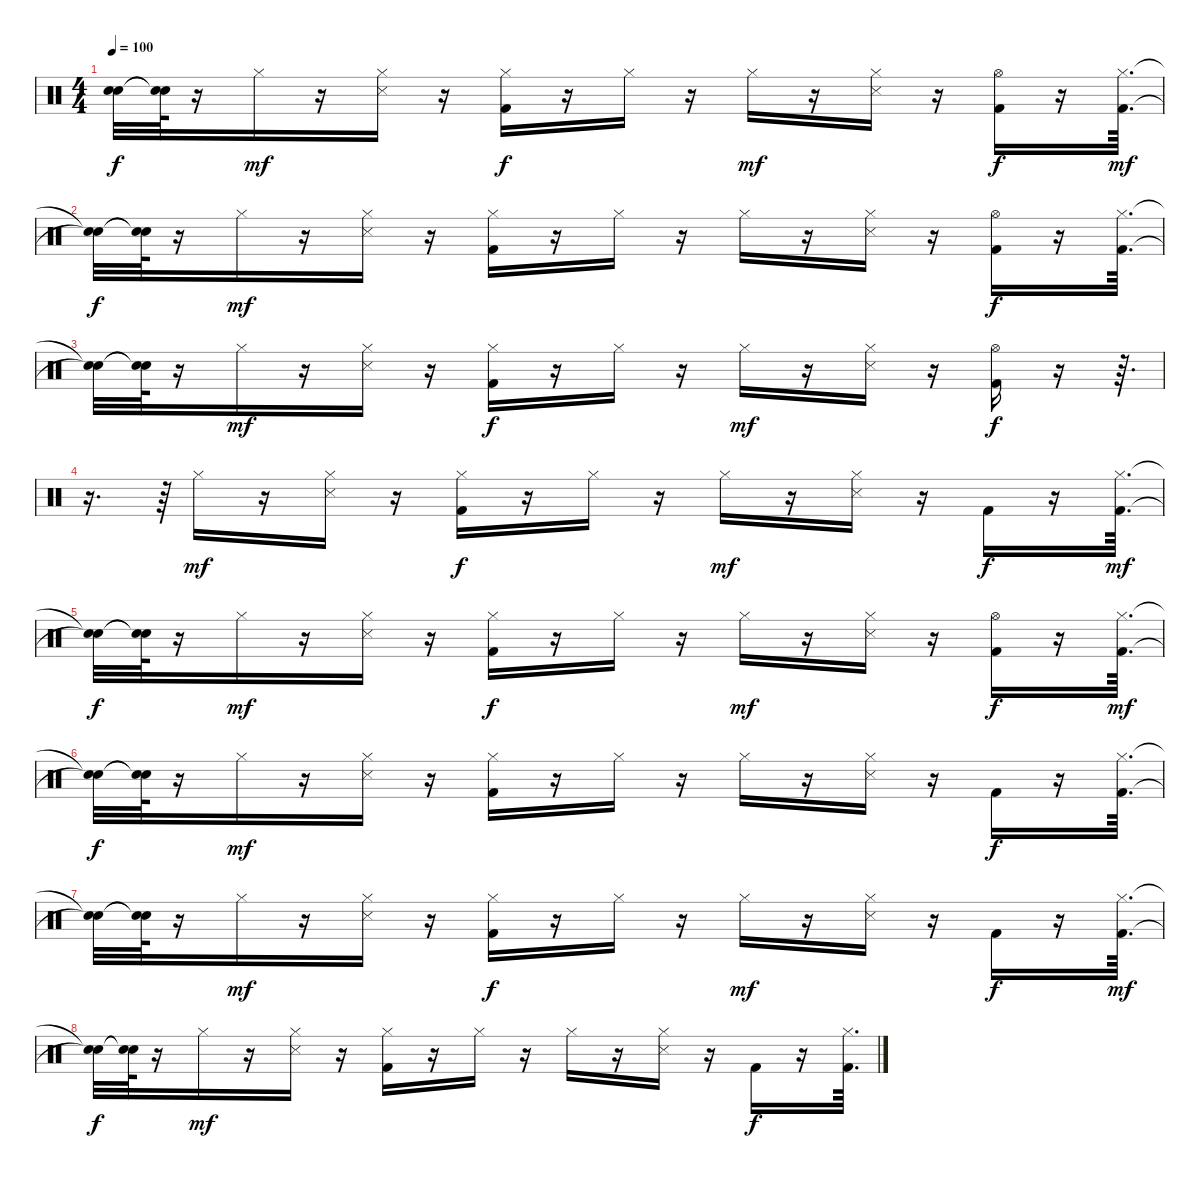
\track "" {instrument percussion}
\staff {score}
\articulation defaults
\ts (4 4)
\tempo 100
\clef neutral
\ks c
("Snare (hit)"{t} "Snare (hit)"{t}).32{dy f} ("Snare (hit)"{t} "Snare (hit)"{t}).64 r.16 "Hi-Hat (closed)".16{dy mf} r.16 ("Hi-Hat (closed)" "Snare (side stick) 3").16 r.16 ("Kick (hit) 2" "Hi-Hat (closed)").16{dy f} r.16 "Hi-Hat (closed)".16 r.16 "Hi-Hat (closed)".16{dy mf} r.16 ("Hi-Hat (closed)" "Snare (side stick) 3").16 r.16 ("Kick (hit) 2" "Hi-Hat (open)").16{dy f} r.16 ("Kick (hit) 2" "Hi-Hat (closed)").64{d dy mf} |
("Snare (hit)"{t} "Snare (hit)"{t}).32{dy f} ("Snare (hit)"{t} "Snare (hit)"{t}).64 r.16 "Hi-Hat (closed)".16{dy mf} r.16 ("Hi-Hat (closed)" "Snare (side stick) 3").16 r.16 ("Kick (hit) 2" "Hi-Hat (closed)").16 r.16 "Hi-Hat (closed)".16 r.16 "Hi-Hat (closed)".16 r.16 ("Hi-Hat (closed)" "Snare (side stick) 3").16 r.16 ("Hi-Hat (open)" "Kick (hit) 2").16{dy f} r.16 ("Hi-Hat (closed)" "Kick (hit) 2").64{d} |
("Snare (hit)"{t} "Snare (hit)"{t}).32 ("Snare (hit)"{t} "Snare (hit)"{t}).64 r.16 "Hi-Hat (closed)".16{dy mf} r.16 ("Hi-Hat (closed)" "Snare (side stick) 3").16 r.16 ("Kick (hit) 2" "Hi-Hat (closed)").16{dy f} r.16 "Hi-Hat (closed)".16 r.16 "Hi-Hat (closed)".16{dy mf} r.16 ("Hi-Hat (closed)" "Snare (side stick) 3").16 r.16 ("Kick (hit) 2" "Hi-Hat (open)").16{dy f} r.16 r.64{d} |
r.16{d} r.64 "Hi-Hat (closed)".16{dy mf} r.16 ("Hi-Hat (closed)" "Snare (side stick) 3").16 r.16 ("Kick (hit) 2" "Hi-Hat (closed)").16{dy f} r.16 "Hi-Hat (closed)".16 r.16 "Hi-Hat (closed)".16{dy mf} r.16 ("Hi-Hat (closed)" "Snare (side stick) 3").16 r.16 "Kick (hit) 2".16{dy f} r.16 ("Kick (hit) 2" "Hi-Hat (closed)").64{d dy mf} |
("Snare (hit)"{t} "Snare (hit)"{t}).32{dy f} ("Snare (hit)"{t} "Snare (hit)"{t}).64 r.16 "Hi-Hat (closed)".16{dy mf} r.16 ("Hi-Hat (closed)" "Snare (side stick) 3").16 r.16 ("Kick (hit) 2" "Hi-Hat (closed)").16{dy f} r.16 "Hi-Hat (closed)".16 r.16 "Hi-Hat (closed)".16{dy mf} r.16 ("Hi-Hat (closed)" "Snare (side stick) 3").16 r.16 ("Kick (hit) 2" "Hi-Hat (open)").16{dy f} r.16 ("Kick (hit) 2" "Hi-Hat (closed)").64{d dy mf} |
("Snare (hit)"{t} "Snare (hit)"{t}).32{dy f} ("Snare (hit)"{t} "Snare (hit)"{t}).64 r.16 "Hi-Hat (closed)".16{dy mf} r.16 ("Hi-Hat (closed)" "Snare (side stick) 3").16 r.16 ("Kick (hit) 2" "Hi-Hat (closed)").16 r.16 "Hi-Hat (closed)".16 r.16 "Hi-Hat (closed)".16 r.16 ("Hi-Hat (closed)" "Snare (side stick) 3").16 r.16 "Kick (hit) 2".16{dy f} r.16 ("Hi-Hat (closed)" "Kick (hit) 2").64{d} |
("Snare (hit)"{t} "Snare (hit)"{t}).32 ("Snare (hit)"{t} "Snare (hit)"{t}).64 r.16 "Hi-Hat (closed)".16{dy mf} r.16 ("Hi-Hat (closed)" "Snare (side stick) 3").16 r.16 ("Kick (hit) 2" "Hi-Hat (closed)").16{dy f} r.16 "Hi-Hat (closed)".16 r.16 "Hi-Hat (closed)".16{dy mf} r.16 ("Hi-Hat (closed)" "Snare (side stick) 3").16 r.16 "Kick (hit) 2".16{dy f} r.16 ("Kick (hit) 2" "Hi-Hat (closed)").64{d dy mf} |
("Snare (hit)"{t} "Snare (hit)"{t}).32{dy f} ("Snare (hit)"{t} "Snare (hit)"{t}).64 r.16 "Hi-Hat (closed)".16{dy mf} r.16 ("Hi-Hat (closed)" "Snare (side stick) 3").16 r.16 ("Kick (hit) 2" "Hi-Hat (closed)").16 r.16 "Hi-Hat (closed)".16 r.16 "Hi-Hat (closed)".16 r.16 ("Hi-Hat (closed)" "Snare (side stick) 3").16 r.16 "Kick (hit) 2".16{dy f} r.16 ("Hi-Hat (closed)" "Kick (hit) 2").64{d}
